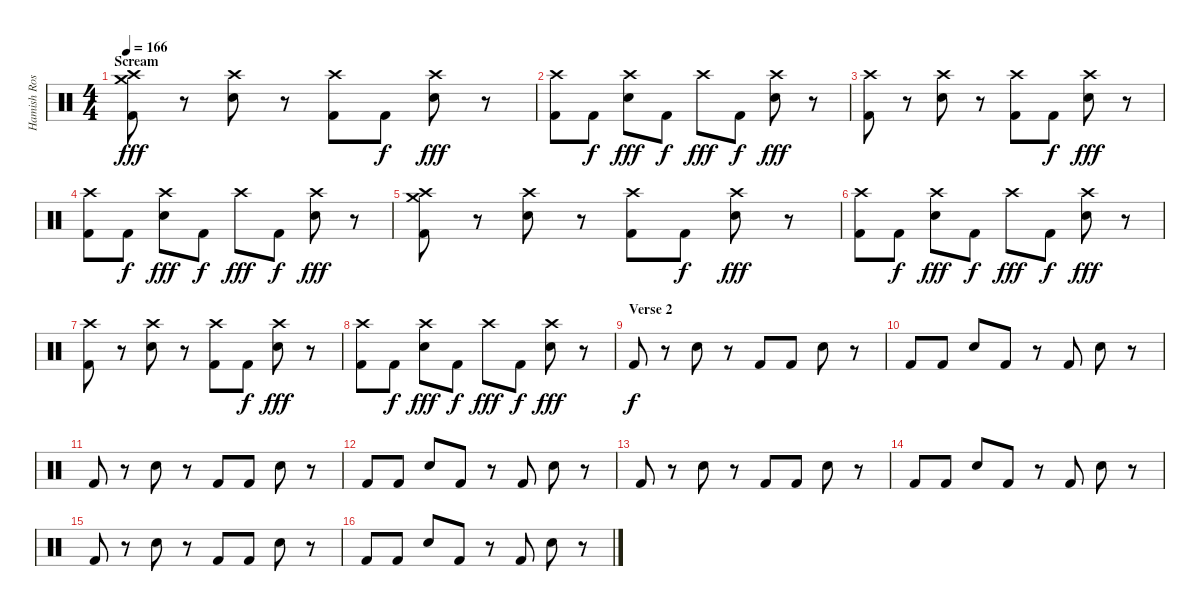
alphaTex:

\track ("Hamish Rosser" "Hamish Ros") {instrument percussion}
\staff {score}
\articulation defaults
\ts (4 4)
\section ("" "Scream")
\tempo 166
\clef neutral
\ks c
("Crash high (hit)" "Crash medium (hit)" "Kick (hit) 2").8{dy fff} r.8 ("Crash high (hit)" "Electric Snare (hit)").8 r.8 ("Crash high (hit)" "Kick (hit) 2").8 "Kick (hit) 2".8{dy f} ("Crash high (hit)" "Electric Snare (hit)").8{dy fff} r.8 |
("Crash high (hit)" "Kick (hit) 2").8 "Kick (hit) 2".8{dy f} ("Crash high (hit)" "Electric Snare (hit)").8{dy fff} "Kick (hit) 2".8{dy f} "Crash high (hit)".8{dy fff} "Kick (hit) 2".8{dy f} ("Crash high (hit)" "Electric Snare (hit)").8{dy fff} r.8 |
("Crash high (hit)" "Kick (hit) 2").8 r.8 ("Crash high (hit)" "Electric Snare (hit)").8 r.8 ("Crash high (hit)" "Kick (hit) 2").8 "Kick (hit) 2".8{dy f} ("Crash high (hit)" "Electric Snare (hit)").8{dy fff} r.8 |
("Crash high (hit)" "Kick (hit) 2").8 "Kick (hit) 2".8{dy f} ("Crash high (hit)" "Electric Snare (hit)").8{dy fff} "Kick (hit) 2".8{dy f} "Crash high (hit)".8{dy fff} "Kick (hit) 2".8{dy f} ("Crash high (hit)" "Electric Snare (hit)").8{dy fff} r.8 |
("Crash high (hit)" "Crash medium (hit)" "Kick (hit) 2").8 r.8 ("Crash high (hit)" "Electric Snare (hit)").8 r.8 ("Crash high (hit)" "Kick (hit) 2").8 "Kick (hit) 2".8{dy f} ("Crash high (hit)" "Electric Snare (hit)").8{dy fff} r.8 |
("Crash high (hit)" "Kick (hit) 2").8 "Kick (hit) 2".8{dy f} ("Crash high (hit)" "Electric Snare (hit)").8{dy fff} "Kick (hit) 2".8{dy f} "Crash high (hit)".8{dy fff} "Kick (hit) 2".8{dy f} ("Crash high (hit)" "Electric Snare (hit)").8{dy fff} r.8 |
("Crash high (hit)" "Kick (hit) 2").8 r.8 ("Crash high (hit)" "Electric Snare (hit)").8 r.8 ("Crash high (hit)" "Kick (hit) 2").8 "Kick (hit) 2".8{dy f} ("Crash high (hit)" "Electric Snare (hit)").8{dy fff} r.8 |
("Crash high (hit)" "Kick (hit) 2").8 "Kick (hit) 2".8{dy f} ("Crash high (hit)" "Electric Snare (hit)").8{dy fff} "Kick (hit) 2".8{dy f} "Crash high (hit)".8{dy fff} "Kick (hit) 2".8{dy f} ("Crash high (hit)" "Electric Snare (hit)").8{dy fff} r.8 |
\section ("" "Verse 2")
"Kick (hit) 2".8{dy f} r.8 "Electric Snare (hit)".8 r.8 "Kick (hit) 2".8 "Kick (hit) 2".8 "Electric Snare (hit)".8 r.8 |
"Kick (hit) 2".8 "Kick (hit) 2".8 "Electric Snare (hit)".8 "Kick (hit) 2".8 r.8 "Kick (hit) 2".8 "Electric Snare (hit)".8 r.8 |
"Kick (hit) 2".8 r.8 "Electric Snare (hit)".8 r.8 "Kick (hit) 2".8 "Kick (hit) 2".8 "Electric Snare (hit)".8 r.8 |
"Kick (hit) 2".8 "Kick (hit) 2".8 "Electric Snare (hit)".8 "Kick (hit) 2".8 r.8 "Kick (hit) 2".8 "Electric Snare (hit)".8 r.8 |
"Kick (hit) 2".8 r.8 "Electric Snare (hit)".8 r.8 "Kick (hit) 2".8 "Kick (hit) 2".8 "Electric Snare (hit)".8 r.8 |
"Kick (hit) 2".8 "Kick (hit) 2".8 "Electric Snare (hit)".8 "Kick (hit) 2".8 r.8 "Kick (hit) 2".8 "Electric Snare (hit)".8 r.8 |
"Kick (hit) 2".8 r.8 "Electric Snare (hit)".8 r.8 "Kick (hit) 2".8 "Kick (hit) 2".8 "Electric Snare (hit)".8 r.8 |
"Kick (hit) 2".8 "Kick (hit) 2".8 "Electric Snare (hit)".8 "Kick (hit) 2".8 r.8 "Kick (hit) 2".8 "Electric Snare (hit)".8 r.8
